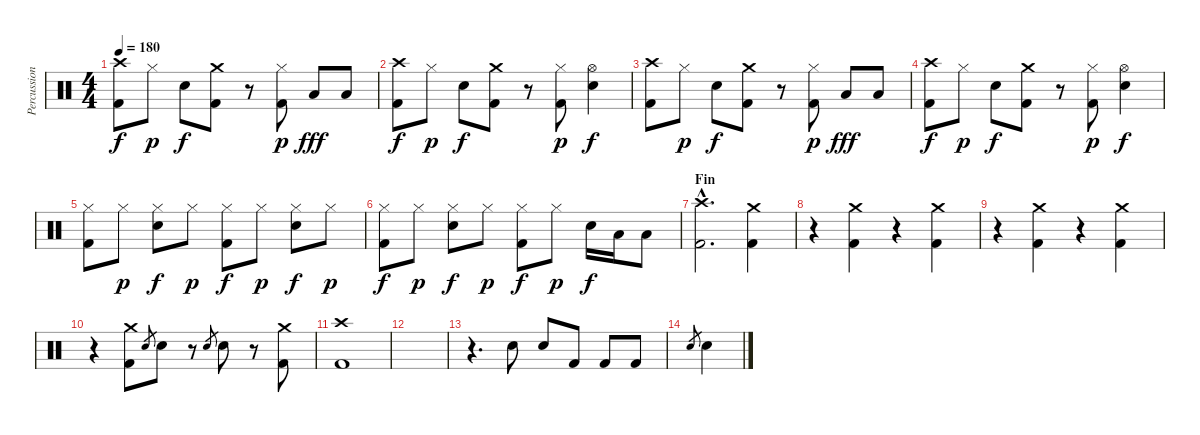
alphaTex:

\track ("Percussions" "Percussion") {instrument percussion}
\staff {score}
\articulation defaults
\ts (4 4)
\tempo 180
\clef neutral
\ks c
("Crash high (hit)" "Kick (hit) 2").8{dy f} "Hi-Hat (closed)".8{dy p} "Electric Snare (hit)".8{dy f} ("Crash medium (hit)" "Kick (hit) 2").8 r.8 ("Hi-Hat (closed)" "Kick (hit) 2").8{dy p} "Low Tom (hit)".8{dy fff} "Low Tom (hit)".8 |
("Crash high (hit)" "Kick (hit) 2").8{dy f} "Hi-Hat (closed)".8{dy p} "Electric Snare (hit)".8{dy f} ("Crash medium (hit)" "Kick (hit) 2").8 r.8 ("Hi-Hat (closed)" "Kick (hit) 2").8{dy p} ("Hi-Hat (open)" "Electric Snare (hit)").4{dy f} |
("Crash high (hit)" "Kick (hit) 2").8 "Hi-Hat (closed)".8{dy p} "Electric Snare (hit)".8{dy f} ("Crash medium (hit)" "Kick (hit) 2").8 r.8 ("Hi-Hat (closed)" "Kick (hit) 2").8{dy p} "Low Tom (hit)".8{dy fff} "Low Tom (hit)".8 |
("Crash high (hit)" "Kick (hit) 2").8{dy f} "Hi-Hat (closed)".8{dy p} "Electric Snare (hit)".8{dy f} ("Crash medium (hit)" "Kick (hit) 2").8 r.8 ("Hi-Hat (closed)" "Kick (hit) 2").8{dy p} ("Hi-Hat (open)" "Electric Snare (hit)").4{dy f} |
("Hi-Hat (closed)" "Kick (hit) 2").8 "Hi-Hat (closed)".8{dy p} ("Hi-Hat (closed)" "Electric Snare (hit)").8{dy f} "Hi-Hat (closed)".8{dy p} ("Hi-Hat (closed)" "Kick (hit) 2").8{dy f} "Hi-Hat (closed)".8{dy p} ("Hi-Hat (closed)" "Electric Snare (hit)").8{dy f} "Hi-Hat (closed)".8{dy p} |
("Hi-Hat (closed)" "Kick (hit) 2").8{dy f} "Hi-Hat (closed)".8{dy p} ("Hi-Hat (closed)" "Electric Snare (hit)").8{dy f} "Hi-Hat (closed)".8{dy p} ("Hi-Hat (closed)" "Kick (hit) 2").8{dy f} "Hi-Hat (closed)".8{dy p} "Electric Snare (hit)".16{dy f} "Low Tom (hit)".16 "Low Tom (hit)".8 |
\section ("" "Fin")
("Crash high (hit)"{hac} "Kick (hit) 2"{hac}).2{d} ("Crash medium (hit)" "Kick (hit) 2").4 |
r.4 ("Crash medium (hit)" "Kick (hit) 2").4 r.4 ("Crash medium (hit)" "Kick (hit) 2").4 |
r.4 ("Crash medium (hit)" "Kick (hit) 2").4 r.4 ("Crash medium (hit)" "Kick (hit) 2").4 |
r.4 ("Crash medium (hit)" "Kick (hit) 2").8 "Electric Snare (hit)".8{gr} "Electric Snare (hit)".8 r.8 "Electric Snare (hit)".8{gr} "Electric Snare (hit)".8 r.8 ("Crash medium (hit)" "Kick (hit) 2").8 |
("Crash high (hit)" "Kick (hit) 2").1 |
|
r.4{d} "Electric Snare (hit)".8 "Electric Snare (hit)".8 "Kick (hit) 2".8 "Kick (hit) 2".8 "Kick (hit) 2".8 |
"Electric Snare (hit)".8{gr} "Electric Snare (hit)".4
